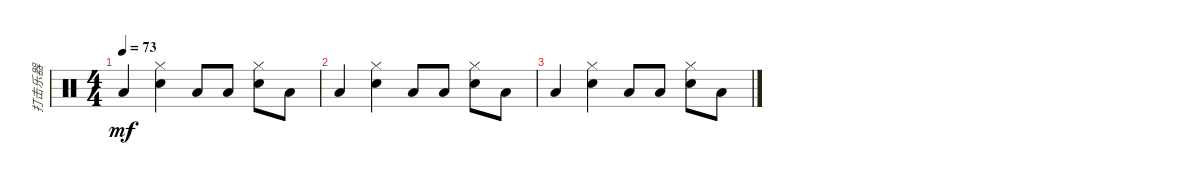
\track ("打击乐器" "打击乐器") {instrument percussion}
\staff {score}
\articulation defaults
\ts (4 4)
\tempo 73
\clef neutral
\ks c "Low Floor Tom (hit)".4{dy mf}
("Hi-Hat (closed)" "Electric Snare (hit)").4 "Low Floor Tom (hit)".8 "Low Floor Tom (hit)".8 ("Hi-Hat (closed)" "Electric Snare (hit)").8 "Low Floor Tom (hit)".8 |
"Low Floor Tom (hit)".4 ("Hi-Hat (closed)" "Electric Snare (hit)").4 "Low Floor Tom (hit)".8 "Low Floor Tom (hit)".8 ("Hi-Hat (closed)" "Electric Snare (hit)").8 "Low Floor Tom (hit)".8 |
"Low Floor Tom (hit)".4 ("Hi-Hat (closed)" "Electric Snare (hit)").4 "Low Floor Tom (hit)".8 "Low Floor Tom (hit)".8 ("Hi-Hat (closed)" "Electric Snare (hit)").8 "Low Floor Tom (hit)".8
